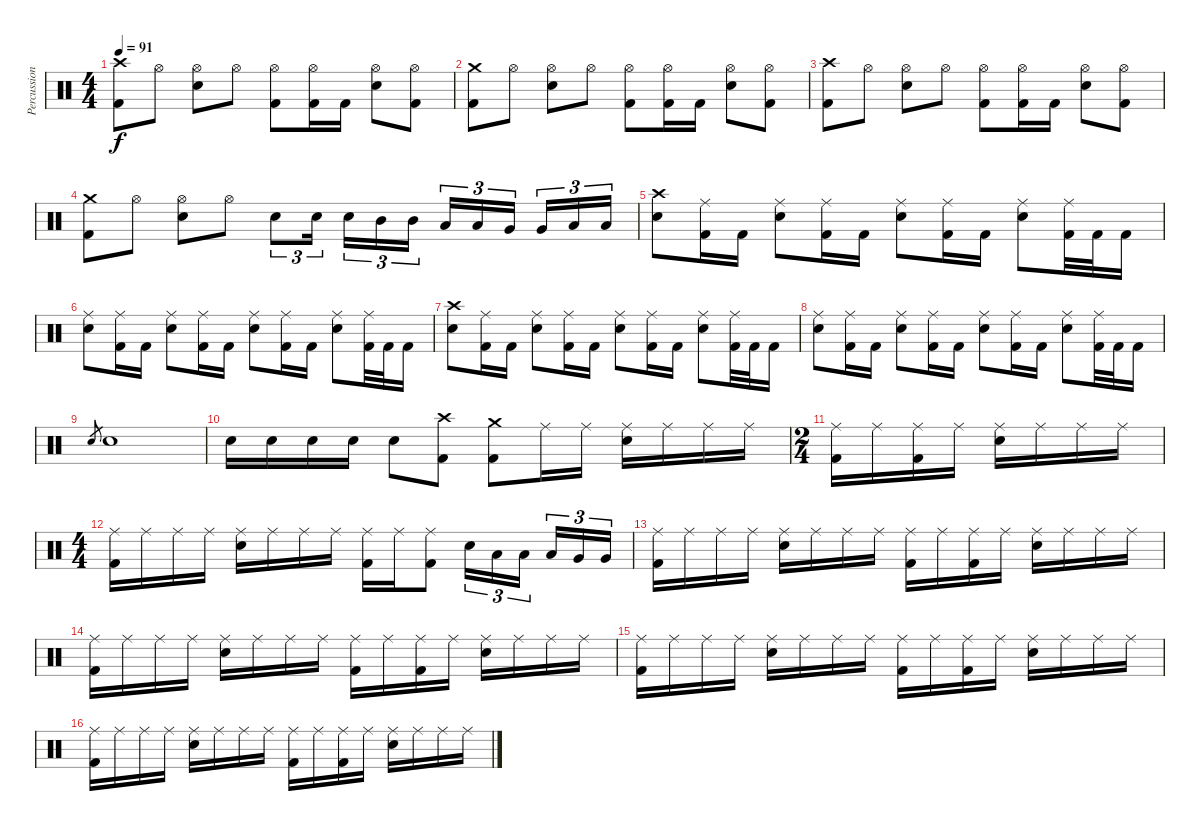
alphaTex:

\track ("Percussion" "Percussion") {instrument percussion}
\staff {score}
\articulation defaults
\ts (4 4)
\tempo 91
\clef neutral
\ks c
("Crash high (hit)" "Kick (hit) 2").8{dy f} "Hi-Hat (open)".8 ("Snare (hit) 2" "Hi-Hat (open)").8 "Hi-Hat (open)".8 ("Hi-Hat (open)" "Kick (hit) 2").8 ("Hi-Hat (open)" "Kick (hit) 2").16 "Kick (hit) 2".16 ("Snare (hit) 2" "Hi-Hat (open)").8 ("Hi-Hat (open)" "Kick (hit) 2").8 |
("Crash medium (hit)" "Kick (hit) 2").8 "Hi-Hat (open)".8 ("Snare (hit) 2" "Hi-Hat (open)").8 "Hi-Hat (open)".8 ("Hi-Hat (open)" "Kick (hit) 2").8 ("Hi-Hat (open)" "Kick (hit) 2").16 "Kick (hit) 2".16 ("Snare (hit) 2" "Hi-Hat (open)").8 ("Hi-Hat (open)" "Kick (hit) 2").8 |
("Crash high (hit)" "Kick (hit) 2").8 "Hi-Hat (open)".8 ("Snare (hit) 2" "Hi-Hat (open)").8 "Hi-Hat (open)".8 ("Hi-Hat (open)" "Kick (hit) 2").8 ("Hi-Hat (open)" "Kick (hit) 2").16 "Kick (hit) 2".16 ("Snare (hit) 2" "Hi-Hat (open)").8 ("Hi-Hat (open)" "Kick (hit) 2").8 |
("Crash medium (hit)" "Kick (hit) 2").8 "Hi-Hat (open)".8 ("Snare (hit) 2" "Hi-Hat (open)").8 "Hi-Hat (open)".8 "Snare (hit) 2".8{tu (3 2)} "Snare (hit) 2".16{tu (3 2) beam splitsecondary} "Snare (hit) 2".16{tu (3 2)} "Mid Tom (hit)".16{tu (3 2)} "Mid Tom (hit)".16{tu (3 2)} "Low Tom (hit)".16{tu (3 2)} "Low Tom (hit)".16{tu (3 2)} "Very Low Tom (hit)".16{tu (3 2) beam splitsecondary} "Very Low Tom (hit)".16{tu (3 2)} "Low Floor Tom (hit)".16{tu (3 2)} "Low Floor Tom (hit)".16{tu (3 2)} |
("Snare (hit) 2" "Crash high (hit)").8 ("Ride (middle)" "Kick (hit) 2").16 "Kick (hit) 2".16 ("Snare (hit) 2" "Ride (middle)").8 ("Ride (middle)" "Kick (hit) 2").16 "Kick (hit) 2".16 ("Snare (hit) 2" "Ride (middle)").8 ("Ride (middle)" "Kick (hit) 2").16 "Kick (hit) 2".16 ("Snare (hit) 2" "Ride (middle)").8 ("Ride (middle)" "Kick (hit) 2").32 "Kick (hit) 2".32 "Kick (hit) 2".16 |
("Snare (hit) 2" "Ride (middle)").8 ("Ride (middle)" "Kick (hit) 2").16 "Kick (hit) 2".16 ("Snare (hit) 2" "Ride (middle)").8 ("Ride (middle)" "Kick (hit) 2").16 "Kick (hit) 2".16 ("Snare (hit) 2" "Ride (middle)").8 ("Ride (middle)" "Kick (hit) 2").16 "Kick (hit) 2".16 ("Snare (hit) 2" "Ride (middle)").8 ("Ride (middle)" "Kick (hit) 2").32 "Kick (hit) 2".32 "Kick (hit) 2".16 |
("Snare (hit) 2" "Crash high (hit)").8 ("Ride (middle)" "Kick (hit) 2").16 "Kick (hit) 2".16 ("Snare (hit) 2" "Ride (middle)").8 ("Ride (middle)" "Kick (hit) 2").16 "Kick (hit) 2".16 ("Snare (hit) 2" "Ride (middle)").8 ("Ride (middle)" "Kick (hit) 2").16 "Kick (hit) 2".16 ("Snare (hit) 2" "Ride (middle)").8 ("Ride (middle)" "Kick (hit) 2").32 "Kick (hit) 2".32 "Kick (hit) 2".16 |
("Snare (hit) 2" "Ride (middle)").8 ("Ride (middle)" "Kick (hit) 2").16 "Kick (hit) 2".16 ("Snare (hit) 2" "Ride (middle)").8 ("Ride (middle)" "Kick (hit) 2").16 "Kick (hit) 2".16 ("Snare (hit) 2" "Ride (middle)").8 ("Ride (middle)" "Kick (hit) 2").16 "Kick (hit) 2".16 ("Snare (hit) 2" "Ride (middle)").8 ("Ride (middle)" "Kick (hit) 2").32 "Kick (hit) 2".32 "Kick (hit) 2".16 |
"Snare (hit) 2".8{gr} "Snare (hit) 2".1 |
"Snare (hit) 2".16 "Snare (hit) 2".16 "Snare (hit) 2".16 "Snare (hit) 2".16 "Snare (hit) 2".8 ("Crash high (hit)" "Kick (hit) 2").8 ("Crash medium (hit)" "Kick (hit) 2").8 "Ride (middle)".16 "Ride (middle)".16 ("Snare (hit) 2" "Ride (middle)").16 "Ride (middle)".16 "Ride (middle)".16 "Ride (middle)".16 |
\ts (2 4)
("Ride (middle)" "Kick (hit) 2").16 "Ride (middle)".16 ("Ride (middle)" "Kick (hit) 2").16 "Ride (middle)".16 ("Snare (hit) 2" "Ride (middle)").16 "Ride (middle)".16 "Ride (middle)".16 "Ride (middle)".16 |
\ts (4 4)
("Ride (middle)" "Kick (hit) 2").16 "Ride (middle)".16 "Ride (middle)".16 "Ride (middle)".16 ("Snare (hit) 2" "Ride (middle)").16 "Ride (middle)".16 "Ride (middle)".16 "Ride (middle)".16 ("Ride (middle)" "Kick (hit) 2").16 "Ride (middle)".16 ("Ride (middle)" "Kick (hit) 2").8 "Snare (hit) 2".16{tu (3 2)} "Low Tom (hit)".16{tu (3 2)} "Low Tom (hit)".16{tu (3 2) beam splitsecondary} "Low Tom (hit)".16{tu (3 2)} "Very Low Tom (hit)".16{tu (3 2)} "Very Low Tom (hit)".16{tu (3 2)} |
("Ride (middle)" "Kick (hit) 2").16 "Ride (middle)".16 "Ride (middle)".16 "Ride (middle)".16 ("Snare (hit) 2" "Ride (middle)").16 "Ride (middle)".16 "Ride (middle)".16 "Ride (middle)".16 ("Ride (middle)" "Kick (hit) 2").16 "Ride (middle)".16 ("Ride (middle)" "Kick (hit) 2").16 "Ride (middle)".16 ("Snare (hit) 2" "Ride (middle)").16 "Ride (middle)".16 "Ride (middle)".16 "Ride (middle)".16 |
("Ride (middle)" "Kick (hit) 2").16 "Ride (middle)".16 "Ride (middle)".16 "Ride (middle)".16 ("Snare (hit) 2" "Ride (middle)").16 "Ride (middle)".16 "Ride (middle)".16 "Ride (middle)".16 ("Ride (middle)" "Kick (hit) 2").16 "Ride (middle)".16 ("Ride (middle)" "Kick (hit) 2").16 "Ride (middle)".16 ("Snare (hit) 2" "Ride (middle)").16 "Ride (middle)".16 "Ride (middle)".16 "Ride (middle)".16 |
("Ride (middle)" "Kick (hit) 2").16 "Ride (middle)".16 "Ride (middle)".16 "Ride (middle)".16 ("Snare (hit) 2" "Ride (middle)").16 "Ride (middle)".16 "Ride (middle)".16 "Ride (middle)".16 ("Ride (middle)" "Kick (hit) 2").16 "Ride (middle)".16 ("Ride (middle)" "Kick (hit) 2").16 "Ride (middle)".16 ("Snare (hit) 2" "Ride (middle)").16 "Ride (middle)".16 "Ride (middle)".16 "Ride (middle)".16 |
("Ride (middle)" "Kick (hit) 2").16 "Ride (middle)".16 "Ride (middle)".16 "Ride (middle)".16 ("Snare (hit) 2" "Ride (middle)").16 "Ride (middle)".16 "Ride (middle)".16 "Ride (middle)".16 ("Ride (middle)" "Kick (hit) 2").16 "Ride (middle)".16 ("Ride (middle)" "Kick (hit) 2").16 "Ride (middle)".16 ("Snare (hit) 2" "Ride (middle)").16 "Ride (middle)".16 "Ride (middle)".16 "Ride (middle)".16
